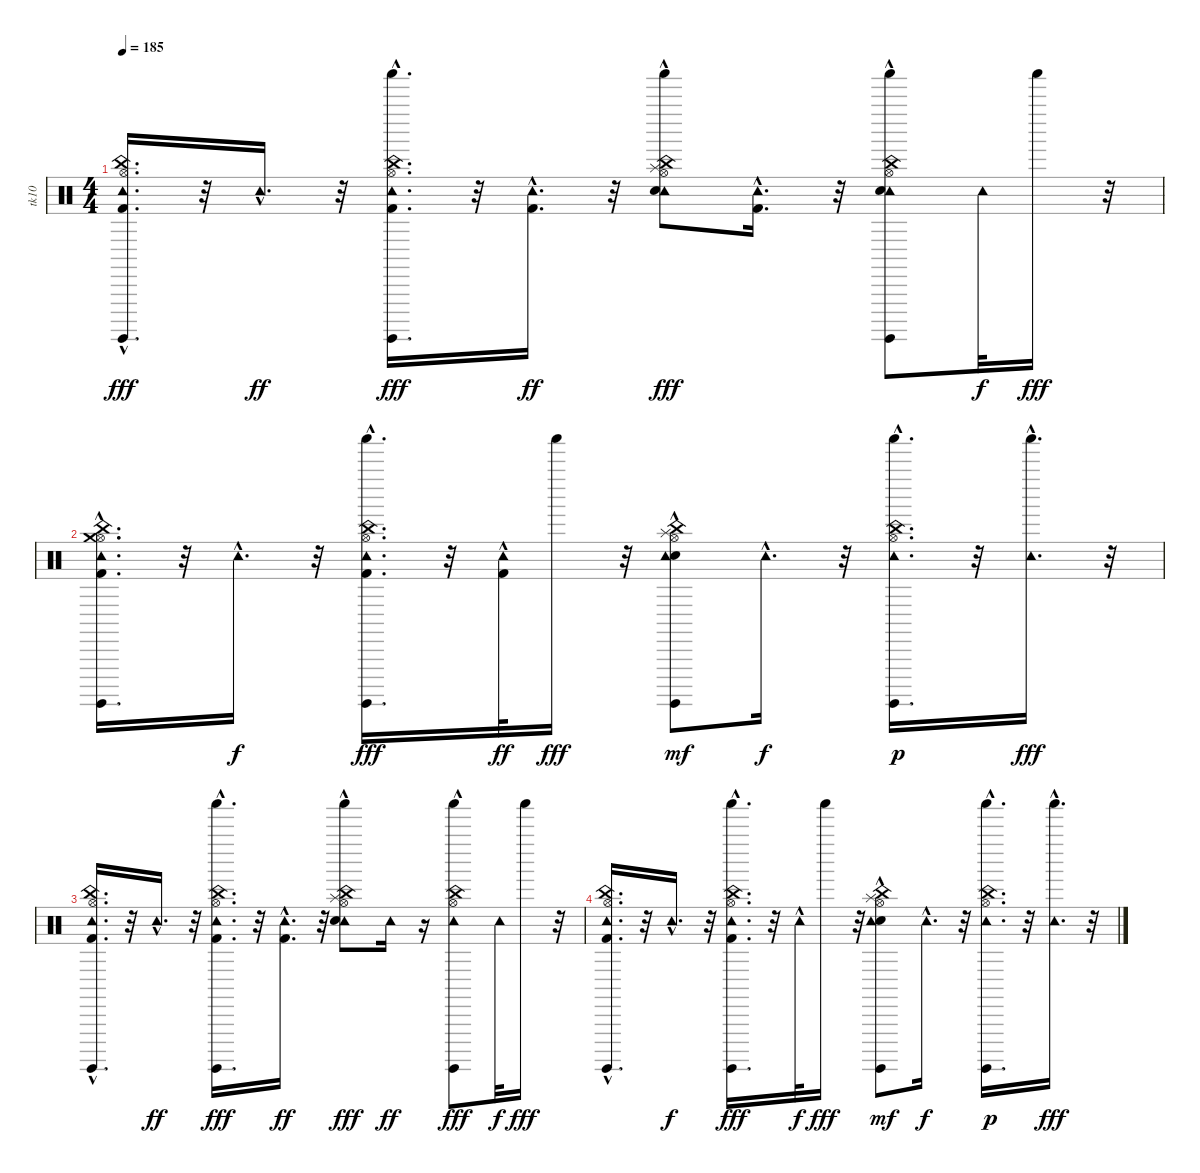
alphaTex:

\track ("tk10" "tk10") {instrument percussion}
\staff {score}
\articulation defaults
\ts (4 4)
\tempo 185
\clef neutral
\ks c
("Kick (hit) 2"{hac} "Hi-Hat (open)" "China (hit)" "Surdo (hit)" "Tambourine (hit)"{hac}).16{d dy fff} r.32 "Tambourine (hit)"{hac}.16{d dy ff} r.32 ("Tambourine (hit)"{hac} "Shaker (hit)" "Kick (hit) 2" "Hi-Hat (open)" "China (hit)" "Surdo (hit)").16{d dy fff} r.32 ("Tambourine (hit)"{hac} "Kick (hit) 2"{hac}).16{d dy ff} r.32 ("Tambourine (hit)"{hac} "Electric Snare (hit)" "Hi-Hat (open)" "Splash (hit)" "China (hit)" "Shaker (hit)"{hac}).8{dy fff} ("Tambourine (hit)" "Kick (hit) 2"{hac}).16{d} r.32 ("Tambourine (hit)" "Shaker (hit)" "Electric Snare (hit)" "Hi-Hat (open)" "China (hit)" "Surdo (hit)"{hac}).8 "Tambourine (hit)".32{dy f} "Shaker (hit)".16{dy fff} r.32 |
("Kick (hit) 2"{hac} "Hi-Hat (open)" "Crash medium (hit)" "Surdo (hit)" "China (hit)" "Tambourine (hit)"{hac}).16{d} r.32 "Tambourine (hit)"{hac}.16{d dy f} r.32 ("Tambourine (hit)"{hac} "Shaker (hit)" "Kick (hit) 2" "Hi-Hat (open)" "China (hit)" "Surdo (hit)").16{d dy fff} r.32 ("Tambourine (hit)"{hac} "Kick (hit) 2"{hac}).32{dy ff} "Shaker (hit)".16{dy fff} r.32 ("Electric Snare (hit)" "Hi-Hat (open)" "Splash (hit)" "China (hit)" "Tambourine (hit)"{hac} "Surdo (hit)").8{dy mf} "Tambourine (hit)"{hac}.16{d dy f} r.32 ("Shaker (hit)" "Surdo (hit)" "Tambourine (hit)"{hac} "Hi-Hat (open)" "China (hit)").16{d dy p} r.32 ("Tambourine (hit)"{hac} "Shaker (hit)").16{d dy fff} r.32 |
("Kick (hit) 2"{hac} "Hi-Hat (open)" "China (hit)" "Surdo (hit)" "Tambourine (hit)"{hac}).16{d} r.32 "Tambourine (hit)"{hac}.16{d dy ff} r.32 ("Tambourine (hit)"{hac} "Shaker (hit)" "Kick (hit) 2" "Hi-Hat (open)" "China (hit)" "Surdo (hit)").16{d dy fff} r.32 ("Tambourine (hit)"{hac} "Kick (hit) 2"{hac}).16{d dy ff} r.32 ("Tambourine (hit)"{hac} "Electric Snare (hit)" "Hi-Hat (open)" "Splash (hit)" "China (hit)" "Shaker (hit)"{hac}).8{dy fff} "Tambourine (hit)".16{dy ff} r.16 ("Tambourine (hit)" "Shaker (hit)" "Hi-Hat (open)" "China (hit)" "Surdo (hit)"{hac}).8{dy fff} "Tambourine (hit)".32{dy f} "Shaker (hit)".16{dy fff} r.32 |
("Kick (hit) 2"{hac} "Hi-Hat (open)" "Surdo (hit)" "China (hit)" "Tambourine (hit)"{hac}).16{d} r.32 "Tambourine (hit)"{hac}.16{d dy f} r.32 ("Tambourine (hit)"{hac} "Shaker (hit)" "Kick (hit) 2" "Hi-Hat (open)" "China (hit)" "Surdo (hit)").16{d dy fff} r.32 "Tambourine (hit)"{hac}.32{dy f} "Shaker (hit)".16{dy fff} r.32 ("Electric Snare (hit)" "Hi-Hat (open)" "Splash (hit)" "China (hit)" "Tambourine (hit)"{hac} "Surdo (hit)").8{dy mf} "Tambourine (hit)"{hac}.16{d dy f} r.32 ("Shaker (hit)" "Surdo (hit)" "Tambourine (hit)"{hac} "Hi-Hat (open)" "China (hit)").16{d dy p} r.32 ("Tambourine (hit)"{hac} "Shaker (hit)").16{d dy fff} r.32
